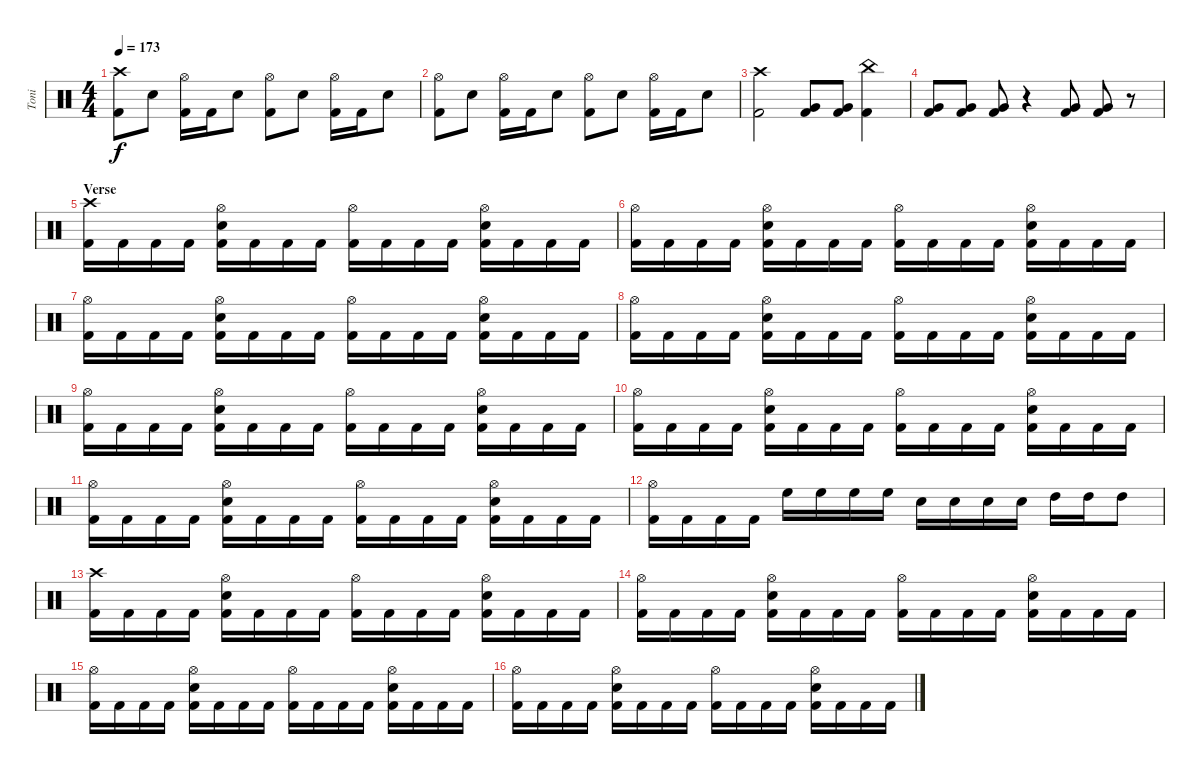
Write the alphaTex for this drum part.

\track ("Toni" "Toni") {instrument percussion}
\staff {score}
\articulation defaults
\ts (4 4)
\tempo 173
\clef neutral
\ks c
("Crash high (hit)" "Kick (hit) 2").8{dy f} "Electric Snare (hit)".8 ("Hi-Hat (open)" "Kick (hit) 2").16 "Kick (hit) 2".16 "Electric Snare (hit)".8 ("Hi-Hat (open)" "Kick (hit) 2").8 "Electric Snare (hit)".8 ("Hi-Hat (open)" "Kick (hit) 2").16 "Kick (hit) 2".16 "Electric Snare (hit)".8 |
("Hi-Hat (open)" "Kick (hit) 2").8 "Electric Snare (hit)".8 ("Hi-Hat (open)" "Kick (hit) 2").16 "Kick (hit) 2".16 "Electric Snare (hit)".8 ("Hi-Hat (open)" "Kick (hit) 2").8 "Electric Snare (hit)".8 ("Hi-Hat (open)" "Kick (hit) 2").16 "Kick (hit) 2".16 "Electric Snare (hit)".8 |
("Crash high (hit)" "Kick (hit) 2").2 ("Very Low Tom (hit)" "Kick (hit) 2").8 ("Very Low Tom (hit)" "Kick (hit) 2").8 ("China (hit)" "Kick (hit) 2").4 |
("Very Low Tom (hit)" "Kick (hit) 2").8 ("Very Low Tom (hit)" "Kick (hit) 2").8 ("Very Low Tom (hit)" "Kick (hit) 2").8 r.4 ("Very Low Tom (hit)" "Kick (hit) 2").8 ("Very Low Tom (hit)" "Kick (hit) 2").8 r.8 |
\section ("" "Verse")
("Crash high (hit)" "Kick (hit) 2").16 "Kick (hit) 2".16 "Kick (hit) 2".16 "Kick (hit) 2".16 ("Hi-Hat (open)" "Electric Snare (hit)" "Kick (hit) 2").16 "Kick (hit) 2".16 "Kick (hit) 2".16 "Kick (hit) 2".16 ("Hi-Hat (open)" "Kick (hit) 2").16 "Kick (hit) 2".16 "Kick (hit) 2".16 "Kick (hit) 2".16 ("Hi-Hat (open)" "Electric Snare (hit)" "Kick (hit) 2").16 "Kick (hit) 2".16 "Kick (hit) 2".16 "Kick (hit) 2".16 |
("Hi-Hat (open)" "Kick (hit) 2").16 "Kick (hit) 2".16 "Kick (hit) 2".16 "Kick (hit) 2".16 ("Hi-Hat (open)" "Electric Snare (hit)" "Kick (hit) 2").16 "Kick (hit) 2".16 "Kick (hit) 2".16 "Kick (hit) 2".16 ("Hi-Hat (open)" "Kick (hit) 2").16 "Kick (hit) 2".16 "Kick (hit) 2".16 "Kick (hit) 2".16 ("Hi-Hat (open)" "Electric Snare (hit)" "Kick (hit) 2").16 "Kick (hit) 2".16 "Kick (hit) 2".16 "Kick (hit) 2".16 |
("Hi-Hat (open)" "Kick (hit) 2").16 "Kick (hit) 2".16 "Kick (hit) 2".16 "Kick (hit) 2".16 ("Hi-Hat (open)" "Electric Snare (hit)" "Kick (hit) 2").16 "Kick (hit) 2".16 "Kick (hit) 2".16 "Kick (hit) 2".16 ("Hi-Hat (open)" "Kick (hit) 2").16 "Kick (hit) 2".16 "Kick (hit) 2".16 "Kick (hit) 2".16 ("Hi-Hat (open)" "Electric Snare (hit)" "Kick (hit) 2").16 "Kick (hit) 2".16 "Kick (hit) 2".16 "Kick (hit) 2".16 |
("Hi-Hat (open)" "Kick (hit) 2").16 "Kick (hit) 2".16 "Kick (hit) 2".16 "Kick (hit) 2".16 ("Hi-Hat (open)" "Electric Snare (hit)" "Kick (hit) 2").16 "Kick (hit) 2".16 "Kick (hit) 2".16 "Kick (hit) 2".16 ("Hi-Hat (open)" "Kick (hit) 2").16 "Kick (hit) 2".16 "Kick (hit) 2".16 "Kick (hit) 2".16 ("Hi-Hat (open)" "Electric Snare (hit)" "Kick (hit) 2").16 "Kick (hit) 2".16 "Kick (hit) 2".16 "Kick (hit) 2".16 |
("Hi-Hat (open)" "Kick (hit) 2").16 "Kick (hit) 2".16 "Kick (hit) 2".16 "Kick (hit) 2".16 ("Hi-Hat (open)" "Electric Snare (hit)" "Kick (hit) 2").16 "Kick (hit) 2".16 "Kick (hit) 2".16 "Kick (hit) 2".16 ("Hi-Hat (open)" "Kick (hit) 2").16 "Kick (hit) 2".16 "Kick (hit) 2".16 "Kick (hit) 2".16 ("Hi-Hat (open)" "Electric Snare (hit)" "Kick (hit) 2").16 "Kick (hit) 2".16 "Kick (hit) 2".16 "Kick (hit) 2".16 |
("Hi-Hat (open)" "Kick (hit) 2").16 "Kick (hit) 2".16 "Kick (hit) 2".16 "Kick (hit) 2".16 ("Hi-Hat (open)" "Electric Snare (hit)" "Kick (hit) 2").16 "Kick (hit) 2".16 "Kick (hit) 2".16 "Kick (hit) 2".16 ("Hi-Hat (open)" "Kick (hit) 2").16 "Kick (hit) 2".16 "Kick (hit) 2".16 "Kick (hit) 2".16 ("Hi-Hat (open)" "Electric Snare (hit)" "Kick (hit) 2").16 "Kick (hit) 2".16 "Kick (hit) 2".16 "Kick (hit) 2".16 |
("Hi-Hat (open)" "Kick (hit) 2").16 "Kick (hit) 2".16 "Kick (hit) 2".16 "Kick (hit) 2".16 ("Hi-Hat (open)" "Electric Snare (hit)" "Kick (hit) 2").16 "Kick (hit) 2".16 "Kick (hit) 2".16 "Kick (hit) 2".16 ("Hi-Hat (open)" "Kick (hit) 2").16 "Kick (hit) 2".16 "Kick (hit) 2".16 "Kick (hit) 2".16 ("Hi-Hat (open)" "Electric Snare (hit)" "Kick (hit) 2").16 "Kick (hit) 2".16 "Kick (hit) 2".16 "Kick (hit) 2".16 |
("Hi-Hat (open)" "Kick (hit) 2").16 "Kick (hit) 2".16 "Kick (hit) 2".16 "Kick (hit) 2".16 "High Floor Tom (hit)".16 "High Floor Tom (hit)".16 "High Floor Tom (hit)".16 "High Floor Tom (hit)".16 "Electric Snare (hit)".16 "Electric Snare (hit)".16 "Electric Snare (hit)".16 "Electric Snare (hit)".16 "High Tom (hit)".16 "High Tom (hit)".16 "High Tom (hit)".8 |
("Crash high (hit)" "Kick (hit) 2").16 "Kick (hit) 2".16 "Kick (hit) 2".16 "Kick (hit) 2".16 ("Hi-Hat (open)" "Electric Snare (hit)" "Kick (hit) 2").16 "Kick (hit) 2".16 "Kick (hit) 2".16 "Kick (hit) 2".16 ("Hi-Hat (open)" "Kick (hit) 2").16 "Kick (hit) 2".16 "Kick (hit) 2".16 "Kick (hit) 2".16 ("Hi-Hat (open)" "Electric Snare (hit)" "Kick (hit) 2").16 "Kick (hit) 2".16 "Kick (hit) 2".16 "Kick (hit) 2".16 |
("Hi-Hat (open)" "Kick (hit) 2").16 "Kick (hit) 2".16 "Kick (hit) 2".16 "Kick (hit) 2".16 ("Hi-Hat (open)" "Electric Snare (hit)" "Kick (hit) 2").16 "Kick (hit) 2".16 "Kick (hit) 2".16 "Kick (hit) 2".16 ("Hi-Hat (open)" "Kick (hit) 2").16 "Kick (hit) 2".16 "Kick (hit) 2".16 "Kick (hit) 2".16 ("Hi-Hat (open)" "Electric Snare (hit)" "Kick (hit) 2").16 "Kick (hit) 2".16 "Kick (hit) 2".16 "Kick (hit) 2".16 |
("Hi-Hat (open)" "Kick (hit) 2").16 "Kick (hit) 2".16 "Kick (hit) 2".16 "Kick (hit) 2".16 ("Hi-Hat (open)" "Electric Snare (hit)" "Kick (hit) 2").16 "Kick (hit) 2".16 "Kick (hit) 2".16 "Kick (hit) 2".16 ("Hi-Hat (open)" "Kick (hit) 2").16 "Kick (hit) 2".16 "Kick (hit) 2".16 "Kick (hit) 2".16 ("Hi-Hat (open)" "Electric Snare (hit)" "Kick (hit) 2").16 "Kick (hit) 2".16 "Kick (hit) 2".16 "Kick (hit) 2".16 |
("Hi-Hat (open)" "Kick (hit) 2").16 "Kick (hit) 2".16 "Kick (hit) 2".16 "Kick (hit) 2".16 ("Hi-Hat (open)" "Electric Snare (hit)" "Kick (hit) 2").16 "Kick (hit) 2".16 "Kick (hit) 2".16 "Kick (hit) 2".16 ("Hi-Hat (open)" "Kick (hit) 2").16 "Kick (hit) 2".16 "Kick (hit) 2".16 "Kick (hit) 2".16 ("Hi-Hat (open)" "Electric Snare (hit)" "Kick (hit) 2").16 "Kick (hit) 2".16 "Kick (hit) 2".16 "Kick (hit) 2".16
